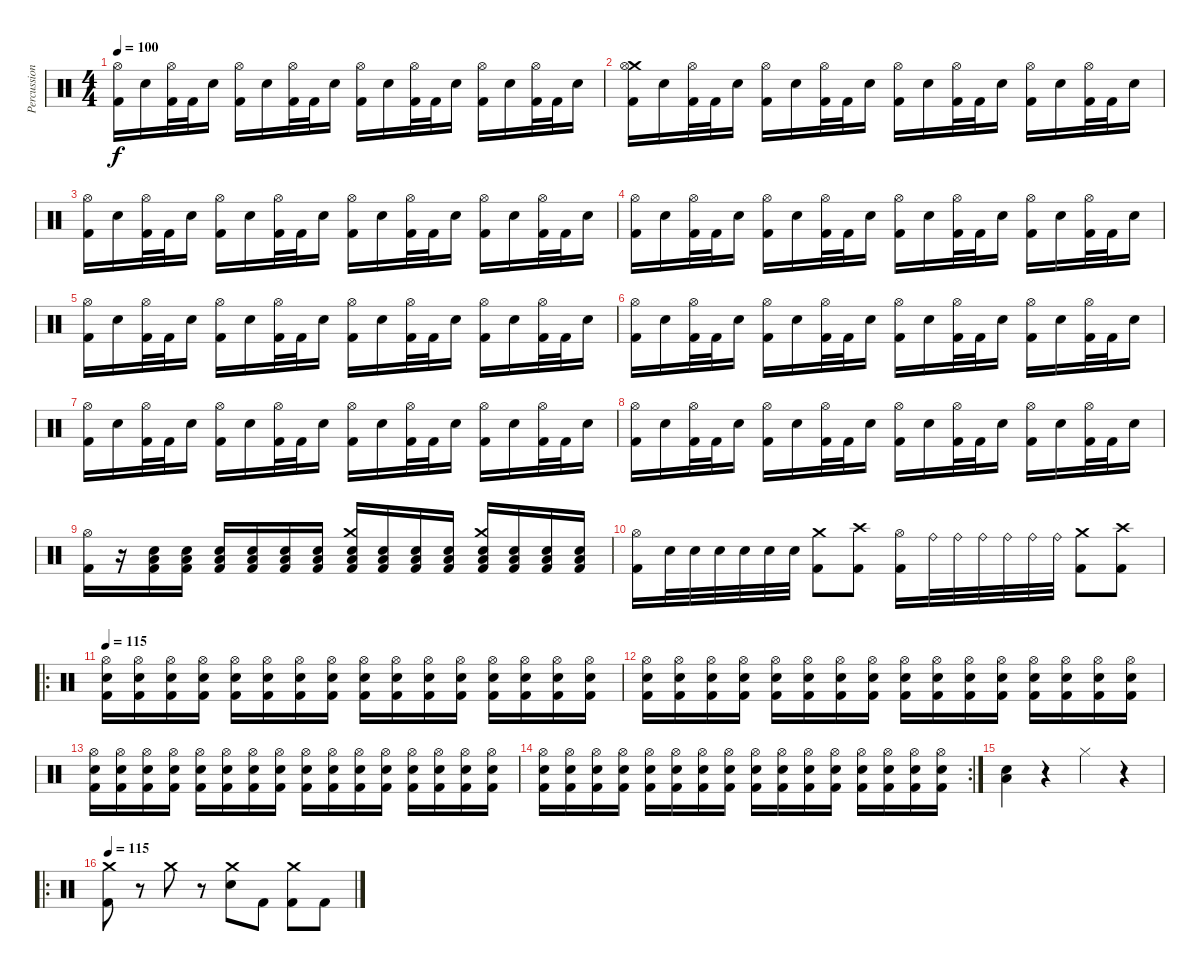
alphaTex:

\track ("Percussion" "Percussion") {instrument percussion}
\staff {score}
\articulation defaults
\ts (4 4)
\tempo 100
\clef neutral
\ks c
("Hi-Hat (open)" "Kick (hit) 2").16{dy f} "Snare (hit) 2".16 ("Hi-Hat (open)" "Kick (hit) 2").32 "Kick (hit) 2".32 "Snare (hit) 2".16 ("Hi-Hat (open)" "Kick (hit) 2").16 "Snare (hit) 2".16 ("Hi-Hat (open)" "Kick (hit) 2").32 "Kick (hit) 2".32 "Snare (hit) 2".16 ("Hi-Hat (open)" "Kick (hit) 2").16 "Snare (hit) 2".16 ("Hi-Hat (open)" "Kick (hit) 2").32 "Kick (hit) 2".32 "Snare (hit) 2".16 ("Hi-Hat (open)" "Kick (hit) 2").16 "Snare (hit) 2".16 ("Hi-Hat (open)" "Kick (hit) 2").32 "Kick (hit) 2".32 "Snare (hit) 2".16 |
("Crash medium (hit)" "Hi-Hat (open)" "Kick (hit) 2").16 "Snare (hit) 2".16 ("Hi-Hat (open)" "Kick (hit) 2").32 "Kick (hit) 2".32 "Snare (hit) 2".16 ("Hi-Hat (open)" "Kick (hit) 2").16 "Snare (hit) 2".16 ("Hi-Hat (open)" "Kick (hit) 2").32 "Kick (hit) 2".32 "Snare (hit) 2".16 ("Hi-Hat (open)" "Kick (hit) 2").16 "Snare (hit) 2".16 ("Hi-Hat (open)" "Kick (hit) 2").32 "Kick (hit) 2".32 "Snare (hit) 2".16 ("Hi-Hat (open)" "Kick (hit) 2").16 "Snare (hit) 2".16 ("Hi-Hat (open)" "Kick (hit) 2").32 "Kick (hit) 2".32 "Snare (hit) 2".16 |
("Hi-Hat (open)" "Kick (hit) 2").16 "Snare (hit) 2".16 ("Hi-Hat (open)" "Kick (hit) 2").32 "Kick (hit) 2".32 "Snare (hit) 2".16 ("Hi-Hat (open)" "Kick (hit) 2").16 "Snare (hit) 2".16 ("Hi-Hat (open)" "Kick (hit) 2").32 "Kick (hit) 2".32 "Snare (hit) 2".16 ("Hi-Hat (open)" "Kick (hit) 2").16 "Snare (hit) 2".16 ("Hi-Hat (open)" "Kick (hit) 2").32 "Kick (hit) 2".32 "Snare (hit) 2".16 ("Hi-Hat (open)" "Kick (hit) 2").16 "Snare (hit) 2".16 ("Hi-Hat (open)" "Kick (hit) 2").32 "Kick (hit) 2".32 "Snare (hit) 2".16 |
("Hi-Hat (open)" "Kick (hit) 2").16 "Snare (hit) 2".16 ("Hi-Hat (open)" "Kick (hit) 2").32 "Kick (hit) 2".32 "Snare (hit) 2".16 ("Hi-Hat (open)" "Kick (hit) 2").16 "Snare (hit) 2".16 ("Hi-Hat (open)" "Kick (hit) 2").32 "Kick (hit) 2".32 "Snare (hit) 2".16 ("Hi-Hat (open)" "Kick (hit) 2").16 "Snare (hit) 2".16 ("Hi-Hat (open)" "Kick (hit) 2").32 "Kick (hit) 2".32 "Snare (hit) 2".16 ("Hi-Hat (open)" "Kick (hit) 2").16 "Snare (hit) 2".16 ("Hi-Hat (open)" "Kick (hit) 2").32 "Kick (hit) 2".32 "Snare (hit) 2".16 |
("Hi-Hat (open)" "Kick (hit) 2").16 "Snare (hit) 2".16 ("Hi-Hat (open)" "Kick (hit) 2").32 "Kick (hit) 2".32 "Snare (hit) 2".16 ("Hi-Hat (open)" "Kick (hit) 2").16 "Snare (hit) 2".16 ("Hi-Hat (open)" "Kick (hit) 2").32 "Kick (hit) 2".32 "Snare (hit) 2".16 ("Hi-Hat (open)" "Kick (hit) 2").16 "Snare (hit) 2".16 ("Hi-Hat (open)" "Kick (hit) 2").32 "Kick (hit) 2".32 "Snare (hit) 2".16 ("Hi-Hat (open)" "Kick (hit) 2").16 "Snare (hit) 2".16 ("Hi-Hat (open)" "Kick (hit) 2").32 "Kick (hit) 2".32 "Snare (hit) 2".16 |
("Hi-Hat (open)" "Kick (hit) 2").16 "Snare (hit) 2".16 ("Hi-Hat (open)" "Kick (hit) 2").32 "Kick (hit) 2".32 "Snare (hit) 2".16 ("Hi-Hat (open)" "Kick (hit) 2").16 "Snare (hit) 2".16 ("Hi-Hat (open)" "Kick (hit) 2").32 "Kick (hit) 2".32 "Snare (hit) 2".16 ("Hi-Hat (open)" "Kick (hit) 2").16 "Snare (hit) 2".16 ("Hi-Hat (open)" "Kick (hit) 2").32 "Kick (hit) 2".32 "Snare (hit) 2".16 ("Hi-Hat (open)" "Kick (hit) 2").16 "Snare (hit) 2".16 ("Hi-Hat (open)" "Kick (hit) 2").32 "Kick (hit) 2".32 "Snare (hit) 2".16 |
("Hi-Hat (open)" "Kick (hit) 2").16 "Snare (hit) 2".16 ("Hi-Hat (open)" "Kick (hit) 2").32 "Kick (hit) 2".32 "Snare (hit) 2".16 ("Hi-Hat (open)" "Kick (hit) 2").16 "Snare (hit) 2".16 ("Hi-Hat (open)" "Kick (hit) 2").32 "Kick (hit) 2".32 "Snare (hit) 2".16 ("Hi-Hat (open)" "Kick (hit) 2").16 "Snare (hit) 2".16 ("Hi-Hat (open)" "Kick (hit) 2").32 "Kick (hit) 2".32 "Snare (hit) 2".16 ("Hi-Hat (open)" "Kick (hit) 2").16 "Snare (hit) 2".16 ("Hi-Hat (open)" "Kick (hit) 2").32 "Kick (hit) 2".32 "Snare (hit) 2".16 |
("Hi-Hat (open)" "Kick (hit) 2").16 "Snare (hit) 2".16 ("Hi-Hat (open)" "Kick (hit) 2").32 "Kick (hit) 2".32 "Snare (hit) 2".16 ("Hi-Hat (open)" "Kick (hit) 2").16 "Snare (hit) 2".16 ("Hi-Hat (open)" "Kick (hit) 2").32 "Kick (hit) 2".32 "Snare (hit) 2".16 ("Hi-Hat (open)" "Kick (hit) 2").16 "Snare (hit) 2".16 ("Hi-Hat (open)" "Kick (hit) 2").32 "Kick (hit) 2".32 "Snare (hit) 2".16 ("Hi-Hat (open)" "Kick (hit) 2").16 "Snare (hit) 2".16 ("Hi-Hat (open)" "Kick (hit) 2").32 "Kick (hit) 2".32 "Snare (hit) 2".16 |
("Hi-Hat (open)" "Kick (hit) 2").16 r.16 ("Snare (hit) 2" "Low Tom (hit)" "Kick (hit) 2").16 ("Snare (hit) 2" "Low Tom (hit)" "Kick (hit) 2").16 ("Snare (hit) 2" "Low Tom (hit)" "Kick (hit) 2").16 ("Snare (hit) 2" "Low Tom (hit)" "Kick (hit) 2").16 ("Snare (hit) 2" "Low Tom (hit)" "Kick (hit) 2").16 ("Snare (hit) 2" "Low Tom (hit)" "Kick (hit) 2").16 ("Crash medium (hit)" "Snare (hit) 2" "Low Tom (hit)" "Kick (hit) 2").16 ("Snare (hit) 2" "Low Tom (hit)" "Kick (hit) 2").16 ("Snare (hit) 2" "Low Tom (hit)" "Kick (hit) 2").16 ("Snare (hit) 2" "Low Tom (hit)" "Kick (hit) 2").16 ("Crash medium (hit)" "Snare (hit) 2" "Low Tom (hit)" "Kick (hit) 2").16 ("Snare (hit) 2" "Low Tom (hit)" "Kick (hit) 2").16 ("Snare (hit) 2" "Low Tom (hit)" "Kick (hit) 2").16 ("Snare (hit) 2" "Low Tom (hit)" "Kick (hit) 2").16 |
("Hi-Hat (open)" "Kick (hit) 2").16 "Snare (hit) 2".32 "Snare (hit) 2".32 "Snare (hit) 2".32 "Snare (hit) 2".32 "Snare (hit) 2".32 "Snare (hit) 2".32 ("Crash medium (hit)" "Kick (hit) 2").8 ("Crash high (hit)" "Kick (hit) 2").8 ("Hi-Hat (open)" "Kick (hit) 2").16 "Ride (bell)".32 "Ride (bell)".32 "Ride (bell)".32 "Ride (bell)".32 "Ride (bell)".32 "Ride (bell)".32 ("Crash medium (hit)" "Kick (hit) 2").8 ("Crash high (hit)" "Kick (hit) 2").8 |
\ro
\tempo 115
("Hi-Hat (open)" "Snare (hit) 2" "Kick (hit) 2").16 ("Hi-Hat (open)" "Snare (hit) 2" "Kick (hit) 2").16 ("Hi-Hat (open)" "Snare (hit) 2" "Kick (hit) 2").16 ("Hi-Hat (open)" "Snare (hit) 2" "Kick (hit) 2").16 ("Hi-Hat (open)" "Snare (hit) 2" "Kick (hit) 2").16 ("Hi-Hat (open)" "Snare (hit) 2" "Kick (hit) 2").16 ("Hi-Hat (open)" "Snare (hit) 2" "Kick (hit) 2").16 ("Hi-Hat (open)" "Snare (hit) 2" "Kick (hit) 2").16 ("Hi-Hat (open)" "Snare (hit) 2" "Kick (hit) 2").16 ("Hi-Hat (open)" "Snare (hit) 2" "Kick (hit) 2").16 ("Hi-Hat (open)" "Snare (hit) 2" "Kick (hit) 2").16 ("Hi-Hat (open)" "Snare (hit) 2" "Kick (hit) 2").16 ("Hi-Hat (open)" "Snare (hit) 2" "Kick (hit) 2").16 ("Hi-Hat (open)" "Snare (hit) 2" "Kick (hit) 2").16 ("Hi-Hat (open)" "Snare (hit) 2" "Kick (hit) 2").16 ("Hi-Hat (open)" "Snare (hit) 2" "Kick (hit) 2").16 |
("Hi-Hat (open)" "Snare (hit) 2" "Kick (hit) 2").16 ("Hi-Hat (open)" "Snare (hit) 2" "Kick (hit) 2").16 ("Hi-Hat (open)" "Snare (hit) 2" "Kick (hit) 2").16 ("Hi-Hat (open)" "Snare (hit) 2" "Kick (hit) 2").16 ("Hi-Hat (open)" "Snare (hit) 2" "Kick (hit) 2").16 ("Hi-Hat (open)" "Snare (hit) 2" "Kick (hit) 2").16 ("Hi-Hat (open)" "Snare (hit) 2" "Kick (hit) 2").16 ("Hi-Hat (open)" "Snare (hit) 2" "Kick (hit) 2").16 ("Hi-Hat (open)" "Snare (hit) 2" "Kick (hit) 2").16 ("Hi-Hat (open)" "Snare (hit) 2" "Kick (hit) 2").16 ("Hi-Hat (open)" "Snare (hit) 2" "Kick (hit) 2").16 ("Hi-Hat (open)" "Snare (hit) 2" "Kick (hit) 2").16 ("Hi-Hat (open)" "Snare (hit) 2" "Kick (hit) 2").16 ("Hi-Hat (open)" "Snare (hit) 2" "Kick (hit) 2").16 ("Hi-Hat (open)" "Snare (hit) 2" "Kick (hit) 2").16 ("Hi-Hat (open)" "Snare (hit) 2" "Kick (hit) 2").16 |
("Hi-Hat (open)" "Snare (hit) 2" "Kick (hit) 2").16 ("Hi-Hat (open)" "Snare (hit) 2" "Kick (hit) 2").16 ("Hi-Hat (open)" "Snare (hit) 2" "Kick (hit) 2").16 ("Hi-Hat (open)" "Snare (hit) 2" "Kick (hit) 2").16 ("Hi-Hat (open)" "Snare (hit) 2" "Kick (hit) 2").16 ("Hi-Hat (open)" "Snare (hit) 2" "Kick (hit) 2").16 ("Hi-Hat (open)" "Snare (hit) 2" "Kick (hit) 2").16 ("Hi-Hat (open)" "Snare (hit) 2" "Kick (hit) 2").16 ("Hi-Hat (open)" "Snare (hit) 2" "Kick (hit) 2").16 ("Hi-Hat (open)" "Snare (hit) 2" "Kick (hit) 2").16 ("Hi-Hat (open)" "Snare (hit) 2" "Kick (hit) 2").16 ("Hi-Hat (open)" "Snare (hit) 2" "Kick (hit) 2").16 ("Hi-Hat (open)" "Snare (hit) 2" "Kick (hit) 2").16 ("Hi-Hat (open)" "Snare (hit) 2" "Kick (hit) 2").16 ("Hi-Hat (open)" "Snare (hit) 2" "Kick (hit) 2").16 ("Hi-Hat (open)" "Snare (hit) 2" "Kick (hit) 2").16 |
\rc 2
("Hi-Hat (open)" "Snare (hit) 2" "Kick (hit) 2").16 ("Hi-Hat (open)" "Snare (hit) 2" "Kick (hit) 2").16 ("Hi-Hat (open)" "Snare (hit) 2" "Kick (hit) 2").16 ("Hi-Hat (open)" "Snare (hit) 2" "Kick (hit) 2").16 ("Hi-Hat (open)" "Snare (hit) 2" "Kick (hit) 2").16 ("Hi-Hat (open)" "Snare (hit) 2" "Kick (hit) 2").16 ("Hi-Hat (open)" "Snare (hit) 2" "Kick (hit) 2").16 ("Hi-Hat (open)" "Snare (hit) 2" "Kick (hit) 2").16 ("Hi-Hat (open)" "Snare (hit) 2" "Kick (hit) 2").16 ("Hi-Hat (open)" "Snare (hit) 2" "Kick (hit) 2").16 ("Hi-Hat (open)" "Snare (hit) 2" "Kick (hit) 2").16 ("Hi-Hat (open)" "Snare (hit) 2" "Kick (hit) 2").16 ("Hi-Hat (open)" "Snare (hit) 2" "Kick (hit) 2").16 ("Hi-Hat (open)" "Snare (hit) 2" "Kick (hit) 2").16 ("Hi-Hat (open)" "Snare (hit) 2" "Kick (hit) 2").16 ("Hi-Hat (open)" "Snare (hit) 2" "Kick (hit) 2").16 |
("Low Tom (hit)" "Snare (hit) 2").4 r.4 "Hi-Hat (closed)".4 r.4 |
\ro
\tempo 115
("Crash medium (hit)" "Kick (hit) 2").8 r.8 "Crash medium (hit)".8 r.8 ("Crash medium (hit)" "Snare (hit) 2").8 "Kick (hit) 2".8 ("Crash medium (hit)" "Kick (hit) 2").8 "Kick (hit) 2".8
